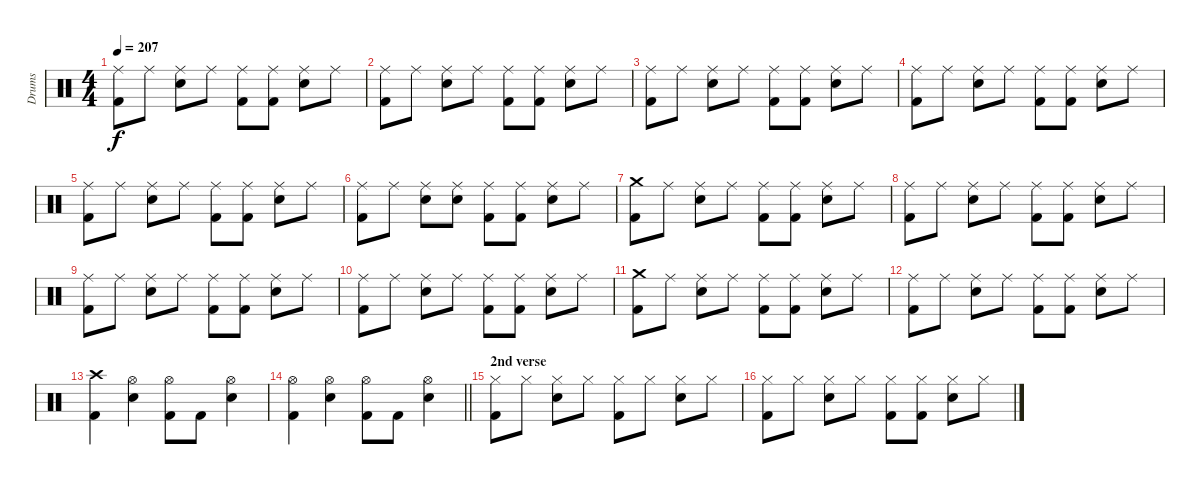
\track ("Drums" "Drums") {instrument percussion}
\staff {score}
\articulation defaults
\ts (4 4)
\tempo 207
\clef neutral
\ks c
("Ride (middle)" "Kick (hit) 2").8{dy f} "Ride (middle)".8 ("Ride (middle)" "Electric Snare (hit)").8 "Ride (middle)".8 ("Ride (middle)" "Kick (hit) 2").8 ("Ride (middle)" "Kick (hit) 2").8 ("Ride (middle)" "Electric Snare (hit)").8 "Ride (middle)".8 |
("Ride (middle)" "Kick (hit) 2").8 "Ride (middle)".8 ("Ride (middle)" "Electric Snare (hit)").8 "Ride (middle)".8 ("Ride (middle)" "Kick (hit) 2").8 ("Ride (middle)" "Kick (hit) 2").8 ("Ride (middle)" "Electric Snare (hit)").8 "Ride (middle)".8 |
("Ride (middle)" "Kick (hit) 2").8 "Ride (middle)".8 ("Ride (middle)" "Electric Snare (hit)").8 "Ride (middle)".8 ("Ride (middle)" "Kick (hit) 2").8 ("Ride (middle)" "Kick (hit) 2").8 ("Ride (middle)" "Electric Snare (hit)").8 "Ride (middle)".8 |
("Ride (middle)" "Kick (hit) 2").8 "Ride (middle)".8 ("Ride (middle)" "Electric Snare (hit)").8 "Ride (middle)".8 ("Ride (middle)" "Kick (hit) 2").8 ("Ride (middle)" "Kick (hit) 2").8 ("Ride (middle)" "Electric Snare (hit)").8 "Ride (middle)".8 |
("Ride (middle)" "Kick (hit) 2").8 "Ride (middle)".8 ("Ride (middle)" "Electric Snare (hit)").8 "Ride (middle)".8 ("Ride (middle)" "Kick (hit) 2").8 ("Ride (middle)" "Kick (hit) 2").8 ("Ride (middle)" "Electric Snare (hit)").8 "Ride (middle)".8 |
("Ride (middle)" "Kick (hit) 2").8 "Ride (middle)".8 ("Ride (middle)" "Electric Snare (hit)").8 ("Ride (middle)" "Electric Snare (hit)").8 ("Ride (middle)" "Kick (hit) 2").8 ("Ride (middle)" "Kick (hit) 2").8 ("Ride (middle)" "Electric Snare (hit)").8 "Ride (middle)".8 |
("Crash medium (hit)" "Kick (hit) 2").8 "Ride (middle)".8 ("Ride (middle)" "Electric Snare (hit)").8 "Ride (middle)".8 ("Ride (middle)" "Kick (hit) 2").8 ("Ride (middle)" "Kick (hit) 2").8 ("Ride (middle)" "Electric Snare (hit)").8 "Ride (middle)".8 |
("Ride (middle)" "Kick (hit) 2").8 "Ride (middle)".8 ("Ride (middle)" "Electric Snare (hit)").8 "Ride (middle)".8 ("Ride (middle)" "Kick (hit) 2").8 ("Ride (middle)" "Kick (hit) 2").8 ("Ride (middle)" "Electric Snare (hit)").8 "Ride (middle)".8 |
("Ride (middle)" "Kick (hit) 2").8 "Ride (middle)".8 ("Ride (middle)" "Electric Snare (hit)").8 "Ride (middle)".8 ("Ride (middle)" "Kick (hit) 2").8 ("Ride (middle)" "Kick (hit) 2").8 ("Ride (middle)" "Electric Snare (hit)").8 "Ride (middle)".8 |
("Ride (middle)" "Kick (hit) 2").8 "Ride (middle)".8 ("Ride (middle)" "Electric Snare (hit)").8 "Ride (middle)".8 ("Ride (middle)" "Kick (hit) 2").8 ("Ride (middle)" "Kick (hit) 2").8 ("Ride (middle)" "Electric Snare (hit)").8 "Ride (middle)".8 |
("Crash medium (hit)" "Kick (hit) 2").8 "Ride (middle)".8 ("Ride (middle)" "Electric Snare (hit)").8 "Ride (middle)".8 ("Ride (middle)" "Kick (hit) 2").8 ("Ride (middle)" "Kick (hit) 2").8 ("Ride (middle)" "Electric Snare (hit)").8 "Ride (middle)".8 |
("Ride (middle)" "Kick (hit) 2").8 "Ride (middle)".8 ("Ride (middle)" "Electric Snare (hit)").8 "Ride (middle)".8 ("Ride (middle)" "Kick (hit) 2").8 ("Ride (middle)" "Kick (hit) 2").8 ("Ride (middle)" "Electric Snare (hit)").8 "Ride (middle)".8 |
("Crash high (hit)" "Kick (hit) 2").4 ("Hi-Hat (open)" "Electric Snare (hit)").4 ("Hi-Hat (open)" "Kick (hit) 2").8 "Kick (hit) 2".8 ("Hi-Hat (open)" "Electric Snare (hit)").4 |
\barLineRight lightlight
("Hi-Hat (open)" "Kick (hit) 2").4 ("Hi-Hat (open)" "Electric Snare (hit)").4 ("Hi-Hat (open)" "Kick (hit) 2").8 "Kick (hit) 2".8 ("Hi-Hat (open)" "Electric Snare (hit)").4 |
\section ("" "2nd verse")
("Hi-Hat (closed)" "Kick (hit) 2").8 "Hi-Hat (closed)".8 ("Hi-Hat (closed)" "Electric Snare (hit)").8 "Hi-Hat (closed)".8 ("Hi-Hat (closed)" "Kick (hit) 2").8 "Hi-Hat (closed)".8 ("Hi-Hat (closed)" "Electric Snare (hit)").8 "Hi-Hat (closed)".8 |
("Hi-Hat (closed)" "Kick (hit) 2").8 "Hi-Hat (closed)".8 ("Hi-Hat (closed)" "Electric Snare (hit)").8 "Hi-Hat (closed)".8 ("Hi-Hat (closed)" "Kick (hit) 2").8 ("Hi-Hat (closed)" "Kick (hit) 2").8 ("Hi-Hat (closed)" "Electric Snare (hit)").8 "Hi-Hat (closed)".8
